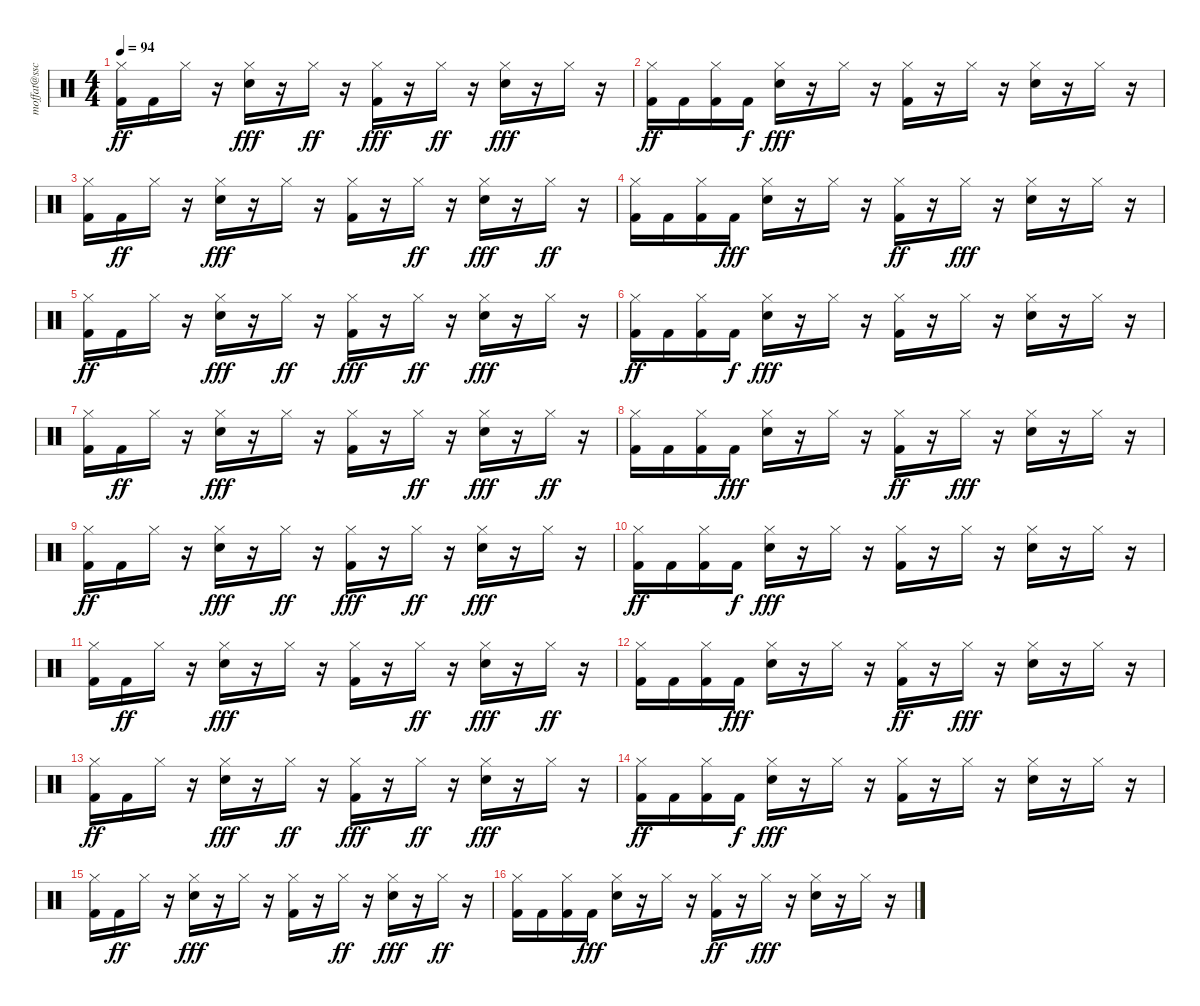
\track ("moffat@sscl." "moffat@ssc") {instrument percussion}
\staff {score}
\articulation defaults
\ts (4 4)
\tempo 94
\clef neutral
\ks c
("Kick (hit) 2" "Hi-Hat (closed)").16{dy ff} "Kick (hit) 2".16 "Hi-Hat (closed)".16 r.16 ("Hi-Hat (closed)" "Snare (hit) 2").16{dy fff} r.16 "Hi-Hat (closed)".16{dy ff} r.16 ("Kick (hit) 2" "Hi-Hat (closed)").16{dy fff} r.16 "Hi-Hat (closed)".16{dy ff} r.16 ("Snare (hit) 2" "Hi-Hat (closed)").16{dy fff} r.16 "Hi-Hat (closed)".16 r.16 |
("Hi-Hat (closed)" "Kick (hit) 2").16{dy ff} "Kick (hit) 2".16 ("Hi-Hat (closed)" "Kick (hit) 2").16 "Kick (hit) 2".16{dy f} ("Hi-Hat (closed)" "Snare (hit) 2").16{dy fff} r.16 "Hi-Hat (closed)".16 r.16 ("Hi-Hat (closed)" "Kick (hit) 2").16 r.16 "Hi-Hat (closed)".16 r.16 ("Snare (hit) 2" "Hi-Hat (closed)").16 r.16 "Hi-Hat (closed)".16 r.16 |
("Kick (hit) 2" "Hi-Hat (closed)").16 "Kick (hit) 2".16{dy ff} "Hi-Hat (closed)".16 r.16 ("Snare (hit) 2" "Hi-Hat (closed)").16{dy fff} r.16 "Hi-Hat (closed)".16 r.16 ("Kick (hit) 2" "Hi-Hat (closed)").16 r.16 "Hi-Hat (closed)".16{dy ff} r.16 ("Snare (hit) 2" "Hi-Hat (closed)").16{dy fff} r.16 "Hi-Hat (closed)".16{dy ff} r.16 |
("Hi-Hat (closed)" "Kick (hit) 2").16 "Kick (hit) 2".16 ("Hi-Hat (closed)" "Kick (hit) 2").16 "Kick (hit) 2".16{dy fff} ("Hi-Hat (closed)" "Snare (hit) 2").16 r.16 "Hi-Hat (closed)".16 r.16 ("Hi-Hat (closed)" "Kick (hit) 2").16{dy ff} r.16 "Hi-Hat (closed)".16{dy fff} r.16 ("Hi-Hat (closed)" "Snare (hit) 2").16 r.16 "Hi-Hat (closed)".16 r.16 |
("Kick (hit) 2" "Hi-Hat (closed)").16{dy ff} "Kick (hit) 2".16 "Hi-Hat (closed)".16 r.16 ("Hi-Hat (closed)" "Snare (hit) 2").16{dy fff} r.16 "Hi-Hat (closed)".16{dy ff} r.16 ("Kick (hit) 2" "Hi-Hat (closed)").16{dy fff} r.16 "Hi-Hat (closed)".16{dy ff} r.16 ("Snare (hit) 2" "Hi-Hat (closed)").16{dy fff} r.16 "Hi-Hat (closed)".16{volume 16} r.16 |
("Hi-Hat (closed)" "Kick (hit) 2").16{dy ff} "Kick (hit) 2".16 ("Hi-Hat (closed)" "Kick (hit) 2").16 "Kick (hit) 2".16{dy f} ("Hi-Hat (closed)" "Snare (hit) 2").16{dy fff} r.16 "Hi-Hat (closed)".16 r.16 ("Hi-Hat (closed)" "Kick (hit) 2").16 r.16 "Hi-Hat (closed)".16 r.16 ("Snare (hit) 2" "Hi-Hat (closed)").16 r.16 "Hi-Hat (closed)".16 r.16 |
("Kick (hit) 2" "Hi-Hat (closed)").16{volume 16} "Kick (hit) 2".16{dy ff} "Hi-Hat (closed)".16 r.16 ("Snare (hit) 2" "Hi-Hat (closed)").16{dy fff volume 15} r.16 "Hi-Hat (closed)".16{volume 15} r.16 ("Kick (hit) 2" "Hi-Hat (closed)").16{volume 15} r.16 "Hi-Hat (closed)".16{dy ff} r.16 ("Snare (hit) 2" "Hi-Hat (closed)").16{dy fff volume 15} r.16 "Hi-Hat (closed)".16{dy ff volume 15} r.16 |
("Hi-Hat (closed)" "Kick (hit) 2").16 "Kick (hit) 2".16 ("Hi-Hat (closed)" "Kick (hit) 2").16 "Kick (hit) 2".16{dy fff} ("Hi-Hat (closed)" "Snare (hit) 2").16 r.16 "Hi-Hat (closed)".16{volume 15} r.16 ("Hi-Hat (closed)" "Kick (hit) 2").16{dy ff volume 14} r.16 "Hi-Hat (closed)".16{dy fff volume 14} r.16 ("Hi-Hat (closed)" "Snare (hit) 2").16{volume 14} r.16 "Hi-Hat (closed)".16{volume 14} r.16 |
("Kick (hit) 2" "Hi-Hat (closed)").16{dy ff volume 14} "Kick (hit) 2".16 "Hi-Hat (closed)".16 r.16 ("Hi-Hat (closed)" "Snare (hit) 2").16{dy fff volume 14} r.16 "Hi-Hat (closed)".16{dy ff} r.16 ("Kick (hit) 2" "Hi-Hat (closed)").16{dy fff volume 14} r.16 "Hi-Hat (closed)".16{dy ff volume 14} r.16 ("Snare (hit) 2" "Hi-Hat (closed)").16{dy fff} r.16 "Hi-Hat (closed)".16 r.16 |
("Hi-Hat (closed)" "Kick (hit) 2").16{dy ff volume 14} "Kick (hit) 2".16 ("Hi-Hat (closed)" "Kick (hit) 2").16 "Kick (hit) 2".16{dy f} ("Hi-Hat (closed)" "Snare (hit) 2").16{dy fff} r.16 "Hi-Hat (closed)".16 r.16 ("Hi-Hat (closed)" "Kick (hit) 2").16 r.16 "Hi-Hat (closed)".16 r.16 ("Snare (hit) 2" "Hi-Hat (closed)").16 r.16 "Hi-Hat (closed)".16 r.16 |
("Kick (hit) 2" "Hi-Hat (closed)").16 "Kick (hit) 2".16{dy ff} "Hi-Hat (closed)".16 r.16 ("Snare (hit) 2" "Hi-Hat (closed)").16{dy fff volume 13} r.16 "Hi-Hat (closed)".16{volume 13} r.16 ("Kick (hit) 2" "Hi-Hat (closed)").16{volume 13} r.16 "Hi-Hat (closed)".16{dy ff volume 13} r.16 ("Snare (hit) 2" "Hi-Hat (closed)").16{dy fff} r.16 "Hi-Hat (closed)".16{dy ff volume 13} r.16 |
("Hi-Hat (closed)" "Kick (hit) 2").16 "Kick (hit) 2".16{volume 12} ("Hi-Hat (closed)" "Kick (hit) 2").16{volume 12} "Kick (hit) 2".16{dy fff} ("Hi-Hat (closed)" "Snare (hit) 2").16{volume 12} r.16 "Hi-Hat (closed)".16{volume 12} r.16 ("Hi-Hat (closed)" "Kick (hit) 2").16{dy ff} r.16 "Hi-Hat (closed)".16{dy fff volume 12} r.16 ("Hi-Hat (closed)" "Snare (hit) 2").16 r.16 "Hi-Hat (closed)".16 r.16 |
("Kick (hit) 2" "Hi-Hat (closed)").16{dy ff volume 12} "Kick (hit) 2".16{volume 11} "Hi-Hat (closed)".16 r.16 ("Hi-Hat (closed)" "Snare (hit) 2").16{dy fff} r.16 "Hi-Hat (closed)".16{dy ff volume 11} r.16 ("Kick (hit) 2" "Hi-Hat (closed)").16{dy fff volume 11} r.16 "Hi-Hat (closed)".16{dy ff volume 10} r.16 ("Snare (hit) 2" "Hi-Hat (closed)").16{dy fff volume 10} r.16 "Hi-Hat (closed)".16{volume 10} r.16 |
("Hi-Hat (closed)" "Kick (hit) 2").16{dy ff volume 10} "Kick (hit) 2".16 ("Hi-Hat (closed)" "Kick (hit) 2").16 "Kick (hit) 2".16{dy f} ("Hi-Hat (closed)" "Snare (hit) 2").16{dy fff volume 10} r.16 "Hi-Hat (closed)".16{volume 9} r.16 ("Hi-Hat (closed)" "Kick (hit) 2").16 r.16 "Hi-Hat (closed)".16{volume 9} r.16 ("Snare (hit) 2" "Hi-Hat (closed)").16{volume 9} r.16 "Hi-Hat (closed)".16{volume 9} r.16 |
("Kick (hit) 2" "Hi-Hat (closed)").16 "Kick (hit) 2".16{dy ff} "Hi-Hat (closed)".16 r.16 ("Snare (hit) 2" "Hi-Hat (closed)").16{dy fff volume 9} r.16 "Hi-Hat (closed)".16{volume 8} r.16 ("Kick (hit) 2" "Hi-Hat (closed)").16{volume 8} r.16 "Hi-Hat (closed)".16{dy ff volume 8} r.16 ("Snare (hit) 2" "Hi-Hat (closed)").16{dy fff volume 8} r.16 "Hi-Hat (closed)".16{dy ff volume 8} r.16 |
("Hi-Hat (closed)" "Kick (hit) 2").16 "Kick (hit) 2".16{volume 8} ("Hi-Hat (closed)" "Kick (hit) 2").16 "Kick (hit) 2".16{dy fff volume 8} ("Hi-Hat (closed)" "Snare (hit) 2").16 r.16 "Hi-Hat (closed)".16{volume 8} r.16 ("Hi-Hat (closed)" "Kick (hit) 2").16{dy ff volume 7} r.16 "Hi-Hat (closed)".16{dy fff} r.16 ("Hi-Hat (closed)" "Snare (hit) 2").16{volume 7} r.16 "Hi-Hat (closed)".16{volume 7} r.16
